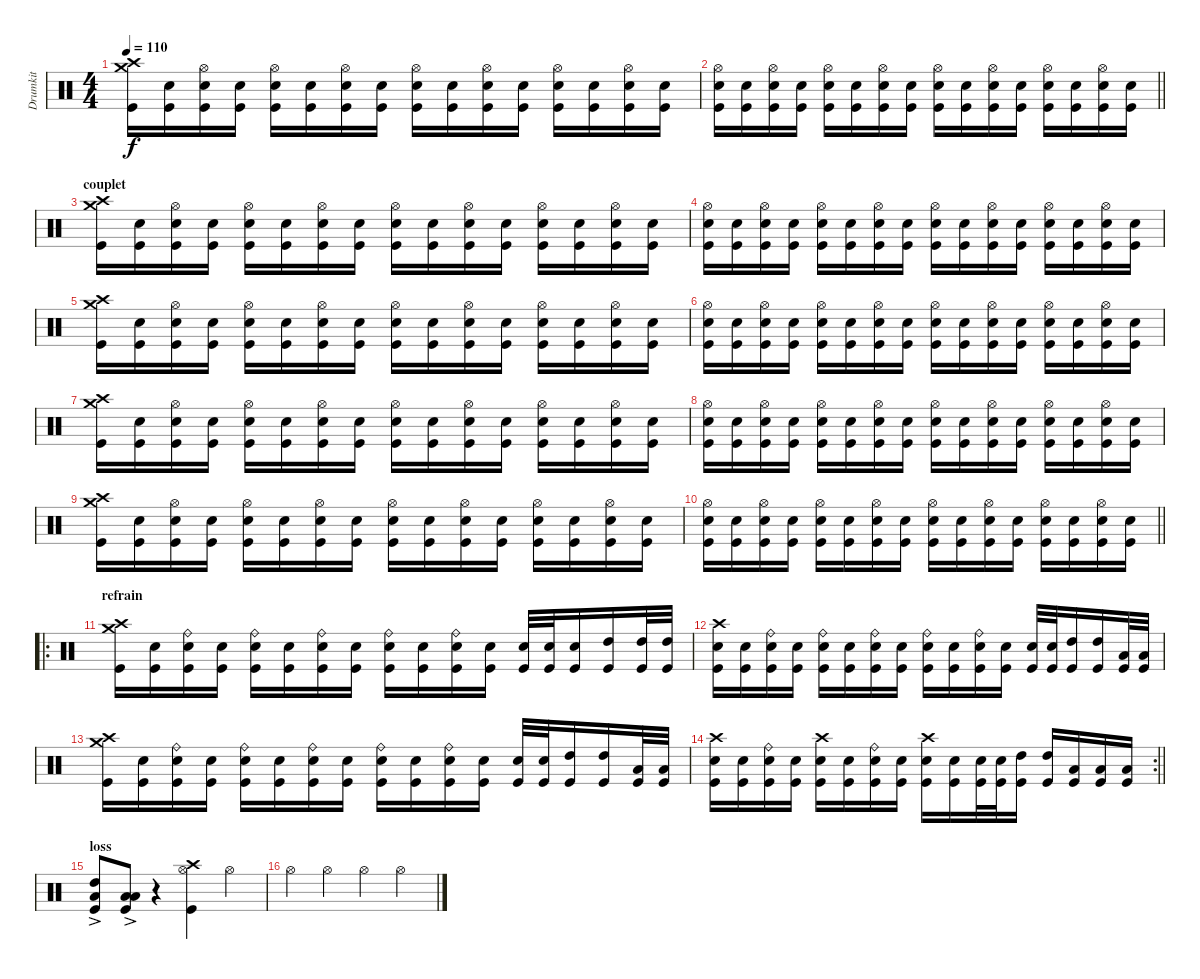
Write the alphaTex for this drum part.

\track ("Drumkit" "Drumkit") {instrument percussion}
\staff {score}
\articulation defaults
\ts (4 4)
\tempo 110
\clef neutral
\ks c
("Crash high (hit)" "Crash medium (hit)" "Kick (hit)").16{dy f} ("Snare (hit) 2" "Kick (hit)").16 ("Hi-Hat (open)" "Snare (hit) 2" "Kick (hit)").16 ("Snare (hit) 2" "Kick (hit)").16 ("Hi-Hat (open)" "Snare (hit) 2" "Kick (hit)").16 ("Snare (hit) 2" "Kick (hit)").16 ("Hi-Hat (open)" "Snare (hit) 2" "Kick (hit)").16 ("Snare (hit) 2" "Kick (hit)").16 ("Hi-Hat (open)" "Snare (hit) 2" "Kick (hit)").16 ("Snare (hit) 2" "Kick (hit)").16 ("Hi-Hat (open)" "Snare (hit) 2" "Kick (hit)").16 ("Snare (hit) 2" "Kick (hit)").16 ("Hi-Hat (open)" "Snare (hit) 2" "Kick (hit)").16 ("Snare (hit) 2" "Kick (hit)").16 ("Hi-Hat (open)" "Snare (hit) 2" "Kick (hit)").16 ("Snare (hit) 2" "Kick (hit)").16 |
\barLineRight lightlight
("Hi-Hat (open)" "Snare (hit) 2" "Kick (hit)").16 ("Snare (hit) 2" "Kick (hit)").16 ("Hi-Hat (open)" "Snare (hit) 2" "Kick (hit)").16 ("Snare (hit) 2" "Kick (hit)").16 ("Hi-Hat (open)" "Snare (hit) 2" "Kick (hit)").16 ("Snare (hit) 2" "Kick (hit)").16 ("Hi-Hat (open)" "Snare (hit) 2" "Kick (hit)").16 ("Snare (hit) 2" "Kick (hit)").16 ("Hi-Hat (open)" "Snare (hit) 2" "Kick (hit)").16 ("Snare (hit) 2" "Kick (hit)").16 ("Hi-Hat (open)" "Snare (hit) 2" "Kick (hit)").16 ("Snare (hit) 2" "Kick (hit)").16 ("Hi-Hat (open)" "Snare (hit) 2" "Kick (hit)").16 ("Snare (hit) 2" "Kick (hit)").16 ("Hi-Hat (open)" "Snare (hit) 2" "Kick (hit)").16 ("Snare (hit) 2" "Kick (hit)").16 |
\section ("" "couplet")
("Crash high (hit)" "Crash medium (hit)" "Kick (hit)").16 ("Snare (hit) 2" "Kick (hit)").16 ("Hi-Hat (open)" "Snare (hit) 2" "Kick (hit)").16 ("Snare (hit) 2" "Kick (hit)").16 ("Hi-Hat (open)" "Snare (hit) 2" "Kick (hit)").16 ("Snare (hit) 2" "Kick (hit)").16 ("Hi-Hat (open)" "Snare (hit) 2" "Kick (hit)").16 ("Snare (hit) 2" "Kick (hit)").16 ("Hi-Hat (open)" "Snare (hit) 2" "Kick (hit)").16 ("Snare (hit) 2" "Kick (hit)").16 ("Hi-Hat (open)" "Snare (hit) 2" "Kick (hit)").16 ("Snare (hit) 2" "Kick (hit)").16 ("Hi-Hat (open)" "Snare (hit) 2" "Kick (hit)").16 ("Snare (hit) 2" "Kick (hit)").16 ("Hi-Hat (open)" "Snare (hit) 2" "Kick (hit)").16 ("Snare (hit) 2" "Kick (hit)").16 |
("Hi-Hat (open)" "Snare (hit) 2" "Kick (hit)").16 ("Snare (hit) 2" "Kick (hit)").16 ("Hi-Hat (open)" "Snare (hit) 2" "Kick (hit)").16 ("Snare (hit) 2" "Kick (hit)").16 ("Hi-Hat (open)" "Snare (hit) 2" "Kick (hit)").16 ("Snare (hit) 2" "Kick (hit)").16 ("Hi-Hat (open)" "Snare (hit) 2" "Kick (hit)").16 ("Snare (hit) 2" "Kick (hit)").16 ("Hi-Hat (open)" "Snare (hit) 2" "Kick (hit)").16 ("Snare (hit) 2" "Kick (hit)").16 ("Hi-Hat (open)" "Snare (hit) 2" "Kick (hit)").16 ("Snare (hit) 2" "Kick (hit)").16 ("Hi-Hat (open)" "Snare (hit) 2" "Kick (hit)").16 ("Snare (hit) 2" "Kick (hit)").16 ("Hi-Hat (open)" "Snare (hit) 2" "Kick (hit)").16 ("Snare (hit) 2" "Kick (hit)").16 |
("Crash high (hit)" "Crash medium (hit)" "Kick (hit)").16 ("Snare (hit) 2" "Kick (hit)").16 ("Hi-Hat (open)" "Snare (hit) 2" "Kick (hit)").16 ("Snare (hit) 2" "Kick (hit)").16 ("Hi-Hat (open)" "Snare (hit) 2" "Kick (hit)").16 ("Snare (hit) 2" "Kick (hit)").16 ("Hi-Hat (open)" "Snare (hit) 2" "Kick (hit)").16 ("Snare (hit) 2" "Kick (hit)").16 ("Hi-Hat (open)" "Snare (hit) 2" "Kick (hit)").16 ("Snare (hit) 2" "Kick (hit)").16 ("Hi-Hat (open)" "Snare (hit) 2" "Kick (hit)").16 ("Snare (hit) 2" "Kick (hit)").16 ("Hi-Hat (open)" "Snare (hit) 2" "Kick (hit)").16 ("Snare (hit) 2" "Kick (hit)").16 ("Hi-Hat (open)" "Snare (hit) 2" "Kick (hit)").16 ("Snare (hit) 2" "Kick (hit)").16 |
("Hi-Hat (open)" "Snare (hit) 2" "Kick (hit)").16 ("Snare (hit) 2" "Kick (hit)").16 ("Hi-Hat (open)" "Snare (hit) 2" "Kick (hit)").16 ("Snare (hit) 2" "Kick (hit)").16 ("Hi-Hat (open)" "Snare (hit) 2" "Kick (hit)").16 ("Snare (hit) 2" "Kick (hit)").16 ("Hi-Hat (open)" "Snare (hit) 2" "Kick (hit)").16 ("Snare (hit) 2" "Kick (hit)").16 ("Hi-Hat (open)" "Snare (hit) 2" "Kick (hit)").16 ("Snare (hit) 2" "Kick (hit)").16 ("Hi-Hat (open)" "Snare (hit) 2" "Kick (hit)").16 ("Snare (hit) 2" "Kick (hit)").16 ("Hi-Hat (open)" "Snare (hit) 2" "Kick (hit)").16 ("Snare (hit) 2" "Kick (hit)").16 ("Hi-Hat (open)" "Snare (hit) 2" "Kick (hit)").16 ("Snare (hit) 2" "Kick (hit)").16 |
("Crash high (hit)" "Crash medium (hit)" "Kick (hit)").16 ("Snare (hit) 2" "Kick (hit)").16 ("Hi-Hat (open)" "Snare (hit) 2" "Kick (hit)").16 ("Snare (hit) 2" "Kick (hit)").16 ("Hi-Hat (open)" "Snare (hit) 2" "Kick (hit)").16 ("Snare (hit) 2" "Kick (hit)").16 ("Hi-Hat (open)" "Snare (hit) 2" "Kick (hit)").16 ("Snare (hit) 2" "Kick (hit)").16 ("Hi-Hat (open)" "Snare (hit) 2" "Kick (hit)").16 ("Snare (hit) 2" "Kick (hit)").16 ("Hi-Hat (open)" "Snare (hit) 2" "Kick (hit)").16 ("Snare (hit) 2" "Kick (hit)").16 ("Hi-Hat (open)" "Snare (hit) 2" "Kick (hit)").16 ("Snare (hit) 2" "Kick (hit)").16 ("Hi-Hat (open)" "Snare (hit) 2" "Kick (hit)").16 ("Snare (hit) 2" "Kick (hit)").16 |
("Hi-Hat (open)" "Snare (hit) 2" "Kick (hit)").16 ("Snare (hit) 2" "Kick (hit)").16 ("Hi-Hat (open)" "Snare (hit) 2" "Kick (hit)").16 ("Snare (hit) 2" "Kick (hit)").16 ("Hi-Hat (open)" "Snare (hit) 2" "Kick (hit)").16 ("Snare (hit) 2" "Kick (hit)").16 ("Hi-Hat (open)" "Snare (hit) 2" "Kick (hit)").16 ("Snare (hit) 2" "Kick (hit)").16 ("Hi-Hat (open)" "Snare (hit) 2" "Kick (hit)").16 ("Snare (hit) 2" "Kick (hit)").16 ("Hi-Hat (open)" "Snare (hit) 2" "Kick (hit)").16 ("Snare (hit) 2" "Kick (hit)").16 ("Hi-Hat (open)" "Snare (hit) 2" "Kick (hit)").16 ("Snare (hit) 2" "Kick (hit)").16 ("Hi-Hat (open)" "Snare (hit) 2" "Kick (hit)").16 ("Snare (hit) 2" "Kick (hit)").16 |
("Crash high (hit)" "Crash medium (hit)" "Kick (hit)").16 ("Snare (hit) 2" "Kick (hit)").16 ("Hi-Hat (open)" "Snare (hit) 2" "Kick (hit)").16 ("Snare (hit) 2" "Kick (hit)").16 ("Hi-Hat (open)" "Snare (hit) 2" "Kick (hit)").16 ("Snare (hit) 2" "Kick (hit)").16 ("Hi-Hat (open)" "Snare (hit) 2" "Kick (hit)").16 ("Snare (hit) 2" "Kick (hit)").16 ("Hi-Hat (open)" "Snare (hit) 2" "Kick (hit)").16 ("Snare (hit) 2" "Kick (hit)").16 ("Hi-Hat (open)" "Snare (hit) 2" "Kick (hit)").16 ("Snare (hit) 2" "Kick (hit)").16 ("Hi-Hat (open)" "Snare (hit) 2" "Kick (hit)").16 ("Snare (hit) 2" "Kick (hit)").16 ("Hi-Hat (open)" "Snare (hit) 2" "Kick (hit)").16 ("Snare (hit) 2" "Kick (hit)").16 |
\barLineRight lightlight
("Hi-Hat (open)" "Snare (hit) 2" "Kick (hit)").16 ("Snare (hit) 2" "Kick (hit)").16 ("Hi-Hat (open)" "Snare (hit) 2" "Kick (hit)").16 ("Snare (hit) 2" "Kick (hit)").16 ("Hi-Hat (open)" "Snare (hit) 2" "Kick (hit)").16 ("Snare (hit) 2" "Kick (hit)").16 ("Hi-Hat (open)" "Snare (hit) 2" "Kick (hit)").16 ("Snare (hit) 2" "Kick (hit)").16 ("Hi-Hat (open)" "Snare (hit) 2" "Kick (hit)").16 ("Snare (hit) 2" "Kick (hit)").16 ("Hi-Hat (open)" "Snare (hit) 2" "Kick (hit)").16 ("Snare (hit) 2" "Kick (hit)").16 ("Hi-Hat (open)" "Snare (hit) 2" "Kick (hit)").16 ("Snare (hit) 2" "Kick (hit)").16 ("Hi-Hat (open)" "Snare (hit) 2" "Kick (hit)").16 ("Snare (hit) 2" "Kick (hit)").16 |
\ro
\section ("" "refrain")
("Crash high (hit)" "Crash medium (hit)" "Kick (hit)").16 ("Snare (hit) 2" "Kick (hit)").16 ("Ride (bell)" "Snare (hit) 2" "Kick (hit)").16 ("Snare (hit) 2" "Kick (hit)").16 ("Ride (bell)" "Snare (hit) 2" "Kick (hit)").16 ("Snare (hit) 2" "Kick (hit)").16 ("Ride (bell)" "Snare (hit) 2" "Kick (hit)").16 ("Snare (hit) 2" "Kick (hit)").16 ("Ride (bell)" "Snare (hit) 2" "Kick (hit)").16 ("Snare (hit) 2" "Kick (hit)").16 ("Ride (bell)" "Snare (hit) 2" "Kick (hit)").16 ("Snare (hit) 2" "Kick (hit)").16 ("Snare (hit) 2" "Kick (hit)").32 ("Snare (hit) 2" "Kick (hit)").32 ("Snare (hit) 2" "Kick (hit)").16 ("High Tom (hit)" "Kick (hit)").16 ("High Tom (hit)" "Kick (hit)").32 ("High Tom (hit)" "Kick (hit)").32 |
("Crash high (hit)" "Snare (hit) 2" "Kick (hit)").16 ("Snare (hit) 2" "Kick (hit)").16 ("Ride (bell)" "Snare (hit) 2" "Kick (hit)").16 ("Snare (hit) 2" "Kick (hit)").16 ("Ride (bell)" "Snare (hit) 2" "Kick (hit)").16 ("Snare (hit) 2" "Kick (hit)").16 ("Ride (bell)" "Snare (hit) 2" "Kick (hit)").16 ("Snare (hit) 2" "Kick (hit)").16 ("Ride (bell)" "Snare (hit) 2" "Kick (hit)").16 ("Snare (hit) 2" "Kick (hit)").16 ("Ride (bell)" "Snare (hit) 2" "Kick (hit)").16 ("Snare (hit) 2" "Kick (hit)").16 ("Snare (hit) 2" "Kick (hit)").32 ("Snare (hit) 2" "Kick (hit)").32 ("High Tom (hit)" "Kick (hit)").16 ("High Tom (hit)" "Kick (hit)").16 ("Low Floor Tom (hit)" "Kick (hit)").32 ("Low Floor Tom (hit)" "Kick (hit)").32 |
("Crash high (hit)" "Crash medium (hit)" "Kick (hit)").16 ("Snare (hit) 2" "Kick (hit)").16 ("Ride (bell)" "Snare (hit) 2" "Kick (hit)").16 ("Snare (hit) 2" "Kick (hit)").16 ("Ride (bell)" "Snare (hit) 2" "Kick (hit)").16 ("Snare (hit) 2" "Kick (hit)").16 ("Ride (bell)" "Snare (hit) 2" "Kick (hit)").16 ("Snare (hit) 2" "Kick (hit)").16 ("Ride (bell)" "Snare (hit) 2" "Kick (hit)").16 ("Snare (hit) 2" "Kick (hit)").16 ("Ride (bell)" "Snare (hit) 2" "Kick (hit)").16 ("Snare (hit) 2" "Kick (hit)").16 ("Snare (hit) 2" "Kick (hit)").32 ("Snare (hit) 2" "Kick (hit)").32 ("High Tom (hit)" "Kick (hit)").16 ("High Tom (hit)" "Kick (hit)").16 ("Low Tom (hit)" "Kick (hit)").32 ("Low Tom (hit)" "Kick (hit)").32 |
\rc 2
\barLineRight lightlight
("Crash high (hit)" "Snare (hit) 2" "Kick (hit)").16 ("Snare (hit) 2" "Kick (hit)").16 ("Ride (bell)" "Snare (hit) 2" "Kick (hit)").16 ("Snare (hit) 2" "Kick (hit)").16 ("Crash high (hit)" "Snare (hit) 2" "Kick (hit)").16 ("Snare (hit) 2" "Kick (hit)").16 ("Ride (bell)" "Snare (hit) 2" "Kick (hit)").16 ("Snare (hit) 2" "Kick (hit)").16 ("Crash high (hit)" "Snare (hit) 2" "Kick (hit)").16 ("Snare (hit) 2" "Kick (hit)").16 ("Snare (hit) 2" "Kick (hit)").32 ("Snare (hit) 2" "Kick (hit)").32 ("High Tom (hit)" "Kick (hit)").16 ("High Tom (hit)" "Kick (hit)").16 ("Low Tom (hit)" "Kick (hit)").16 ("Low Tom (hit)" "Kick (hit)").16 ("Low Tom (hit)" "Kick (hit)").16 |
\section ("" "loss")
("High Tom (hit)"{ac} "Low Floor Tom (hit)"{ac} "Kick (hit)").8 ("Low Tom (hit)"{ac} "Low Floor Tom (hit)"{ac} "Kick (hit)").8 r.4 ("Crash high (hit)" "Hi-Hat (open)" "Kick (hit)").4 "Hi-Hat (open)".4 |
"Hi-Hat (open)".4 "Hi-Hat (open)".4 "Hi-Hat (open)".4 "Hi-Hat (open)".4
